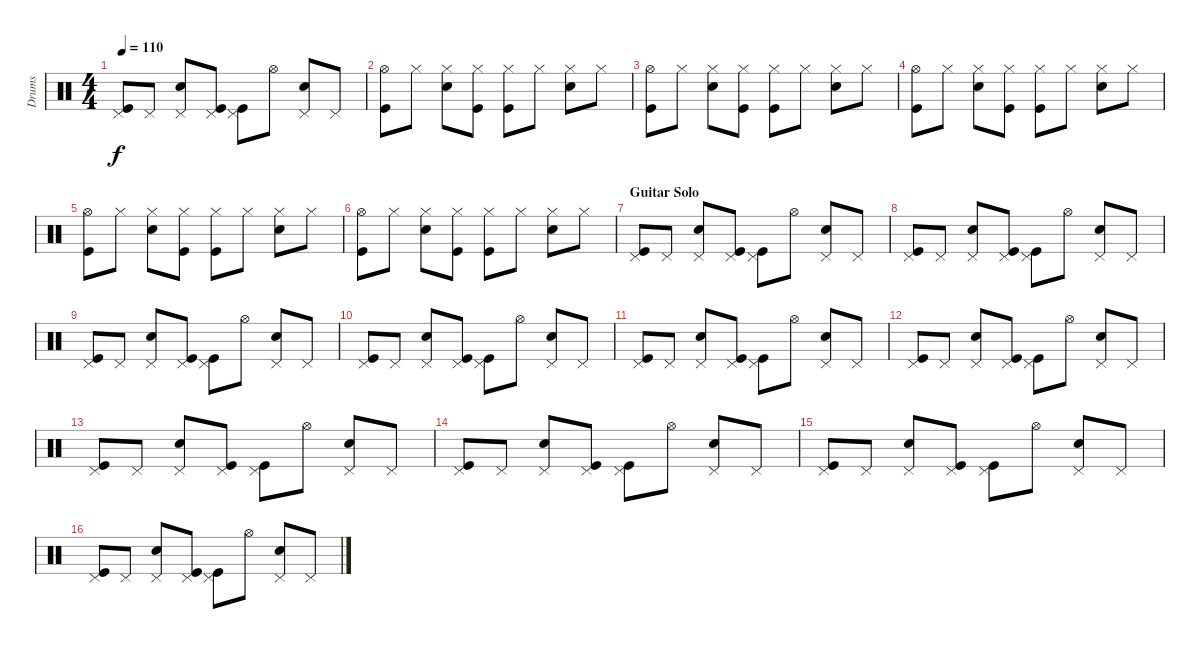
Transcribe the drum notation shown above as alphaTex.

\track ("Drums" "Drums") {instrument percussion}
\staff {score}
\articulation defaults
\ts (4 4)
\tempo 110
\clef neutral
\ks c
("Pedal Hi-Hat (hit)" "Kick (hit)").8{dy f} "Pedal Hi-Hat (hit)".8 ("Pedal Hi-Hat (hit)" "Snare (hit) 2").8 ("Pedal Hi-Hat (hit)" "Kick (hit)").8 ("Pedal Hi-Hat (hit)" "Kick (hit)").8 "Hi-Hat (open)".8 ("Pedal Hi-Hat (hit)" "Snare (hit) 2").8 "Pedal Hi-Hat (hit)".8 |
("Hi-Hat (open)" "Kick (hit)").8 "Hi-Hat (closed)".8 ("Hi-Hat (closed)" "Snare (hit) 2").8 ("Hi-Hat (closed)" "Kick (hit)").8 ("Hi-Hat (closed)" "Kick (hit)").8 "Hi-Hat (closed)".8 ("Hi-Hat (closed)" "Snare (hit) 2").8 "Hi-Hat (closed)".8 |
("Hi-Hat (open)" "Kick (hit)").8 "Hi-Hat (closed)".8 ("Hi-Hat (closed)" "Snare (hit) 2").8 ("Hi-Hat (closed)" "Kick (hit)").8 ("Hi-Hat (closed)" "Kick (hit)").8 "Hi-Hat (closed)".8 ("Hi-Hat (closed)" "Snare (hit) 2").8 "Hi-Hat (closed)".8 |
("Hi-Hat (open)" "Kick (hit)").8 "Hi-Hat (closed)".8 ("Hi-Hat (closed)" "Snare (hit) 2").8 ("Hi-Hat (closed)" "Kick (hit)").8 ("Hi-Hat (closed)" "Kick (hit)").8 "Hi-Hat (closed)".8 ("Hi-Hat (closed)" "Snare (hit) 2").8 "Hi-Hat (closed)".8 |
("Hi-Hat (open)" "Kick (hit)").8 "Hi-Hat (closed)".8 ("Hi-Hat (closed)" "Snare (hit) 2").8 ("Hi-Hat (closed)" "Kick (hit)").8 ("Hi-Hat (closed)" "Kick (hit)").8 "Hi-Hat (closed)".8 ("Hi-Hat (closed)" "Snare (hit) 2").8 "Hi-Hat (closed)".8 |
("Hi-Hat (open)" "Kick (hit)").8 "Hi-Hat (closed)".8 ("Hi-Hat (closed)" "Snare (hit) 2").8 ("Hi-Hat (closed)" "Kick (hit)").8 ("Hi-Hat (closed)" "Kick (hit)").8 "Hi-Hat (closed)".8 ("Hi-Hat (closed)" "Snare (hit) 2").8 "Hi-Hat (closed)".8 |
\section ("" "Guitar Solo")
("Pedal Hi-Hat (hit)" "Kick (hit)").8 "Pedal Hi-Hat (hit)".8 ("Pedal Hi-Hat (hit)" "Snare (hit) 2").8 ("Pedal Hi-Hat (hit)" "Kick (hit)").8 ("Pedal Hi-Hat (hit)" "Kick (hit)").8 "Hi-Hat (open)".8 ("Pedal Hi-Hat (hit)" "Snare (hit) 2").8 "Pedal Hi-Hat (hit)".8 |
("Pedal Hi-Hat (hit)" "Kick (hit)").8 "Pedal Hi-Hat (hit)".8 ("Pedal Hi-Hat (hit)" "Snare (hit) 2").8 ("Pedal Hi-Hat (hit)" "Kick (hit)").8 ("Pedal Hi-Hat (hit)" "Kick (hit)").8 "Hi-Hat (open)".8 ("Pedal Hi-Hat (hit)" "Snare (hit) 2").8 "Pedal Hi-Hat (hit)".8 |
("Pedal Hi-Hat (hit)" "Kick (hit)").8 "Pedal Hi-Hat (hit)".8 ("Pedal Hi-Hat (hit)" "Snare (hit) 2").8 ("Pedal Hi-Hat (hit)" "Kick (hit)").8 ("Pedal Hi-Hat (hit)" "Kick (hit)").8 "Hi-Hat (open)".8 ("Pedal Hi-Hat (hit)" "Snare (hit) 2").8 "Pedal Hi-Hat (hit)".8 |
("Pedal Hi-Hat (hit)" "Kick (hit)").8 "Pedal Hi-Hat (hit)".8 ("Pedal Hi-Hat (hit)" "Snare (hit) 2").8 ("Pedal Hi-Hat (hit)" "Kick (hit)").8 ("Pedal Hi-Hat (hit)" "Kick (hit)").8 "Hi-Hat (open)".8 ("Pedal Hi-Hat (hit)" "Snare (hit) 2").8 "Pedal Hi-Hat (hit)".8 |
("Pedal Hi-Hat (hit)" "Kick (hit)").8 "Pedal Hi-Hat (hit)".8 ("Pedal Hi-Hat (hit)" "Snare (hit) 2").8 ("Pedal Hi-Hat (hit)" "Kick (hit)").8 ("Pedal Hi-Hat (hit)" "Kick (hit)").8 "Hi-Hat (open)".8 ("Pedal Hi-Hat (hit)" "Snare (hit) 2").8 "Pedal Hi-Hat (hit)".8 |
("Pedal Hi-Hat (hit)" "Kick (hit)").8 "Pedal Hi-Hat (hit)".8 ("Pedal Hi-Hat (hit)" "Snare (hit) 2").8 ("Pedal Hi-Hat (hit)" "Kick (hit)").8 ("Pedal Hi-Hat (hit)" "Kick (hit)").8 "Hi-Hat (open)".8 ("Pedal Hi-Hat (hit)" "Snare (hit) 2").8 "Pedal Hi-Hat (hit)".8 |
("Pedal Hi-Hat (hit)" "Kick (hit)").8 "Pedal Hi-Hat (hit)".8 ("Pedal Hi-Hat (hit)" "Snare (hit) 2").8 ("Pedal Hi-Hat (hit)" "Kick (hit)").8 ("Pedal Hi-Hat (hit)" "Kick (hit)").8 "Hi-Hat (open)".8 ("Pedal Hi-Hat (hit)" "Snare (hit) 2").8 "Pedal Hi-Hat (hit)".8 |
("Pedal Hi-Hat (hit)" "Kick (hit)").8 "Pedal Hi-Hat (hit)".8 ("Pedal Hi-Hat (hit)" "Snare (hit) 2").8 ("Pedal Hi-Hat (hit)" "Kick (hit)").8 ("Pedal Hi-Hat (hit)" "Kick (hit)").8 "Hi-Hat (open)".8 ("Pedal Hi-Hat (hit)" "Snare (hit) 2").8 "Pedal Hi-Hat (hit)".8 |
("Pedal Hi-Hat (hit)" "Kick (hit)").8 "Pedal Hi-Hat (hit)".8 ("Pedal Hi-Hat (hit)" "Snare (hit) 2").8 ("Pedal Hi-Hat (hit)" "Kick (hit)").8 ("Pedal Hi-Hat (hit)" "Kick (hit)").8 "Hi-Hat (open)".8 ("Pedal Hi-Hat (hit)" "Snare (hit) 2").8 "Pedal Hi-Hat (hit)".8 |
("Pedal Hi-Hat (hit)" "Kick (hit)").8 "Pedal Hi-Hat (hit)".8 ("Pedal Hi-Hat (hit)" "Snare (hit) 2").8 ("Pedal Hi-Hat (hit)" "Kick (hit)").8 ("Pedal Hi-Hat (hit)" "Kick (hit)").8 "Hi-Hat (open)".8 ("Pedal Hi-Hat (hit)" "Snare (hit) 2").8 "Pedal Hi-Hat (hit)".8
